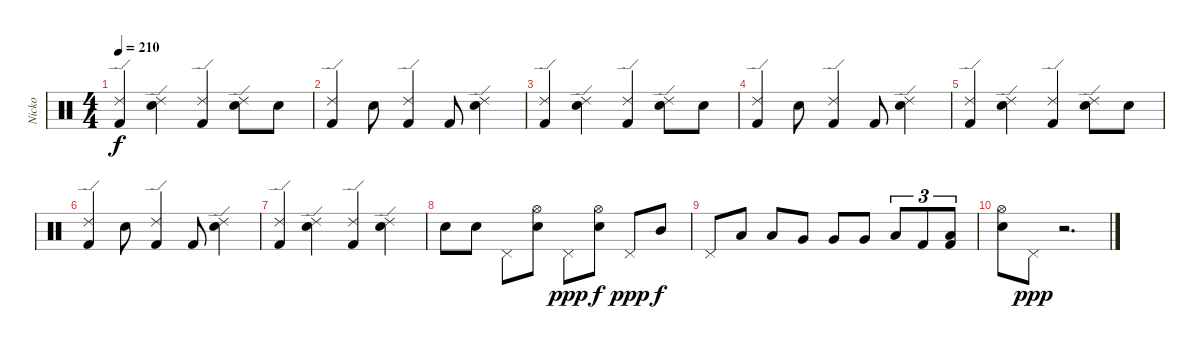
\track ("Nicko" "Nicko") {instrument percussion}
\staff {score}
\articulation defaults
\ts (4 4)
\tempo 210
\clef neutral
\ks c
("Ride (edge) 2" "Kick (hit) 2").4{dy f} ("Ride (edge) 2" "Electric Snare (hit)").4 ("Ride (edge) 2" "Kick (hit) 2").4 ("Ride (edge) 2" "Electric Snare (hit)").8 "Electric Snare (hit)".8 |
("Ride (edge) 2" "Kick (hit) 2").4 "Electric Snare (hit)".8 ("Ride (edge) 2" "Kick (hit) 2").4 "Kick (hit) 2".8 ("Ride (edge) 2" "Electric Snare (hit)").4 |
("Ride (edge) 2" "Kick (hit) 2").4 ("Ride (edge) 2" "Electric Snare (hit)").4 ("Ride (edge) 2" "Kick (hit) 2").4 ("Ride (edge) 2" "Electric Snare (hit)").8 "Electric Snare (hit)".8 |
("Ride (edge) 2" "Kick (hit) 2").4 "Electric Snare (hit)".8 ("Ride (edge) 2" "Kick (hit) 2").4 "Kick (hit) 2".8 ("Ride (edge) 2" "Electric Snare (hit)").4 |
("Ride (edge) 2" "Kick (hit) 2").4 ("Ride (edge) 2" "Electric Snare (hit)").4 ("Ride (edge) 2" "Kick (hit) 2").4 ("Ride (edge) 2" "Electric Snare (hit)").8 "Electric Snare (hit)".8 |
("Ride (edge) 2" "Kick (hit) 2").4 "Electric Snare (hit)".8 ("Ride (edge) 2" "Kick (hit) 2").4 "Kick (hit) 2".8 ("Ride (edge) 2" "Electric Snare (hit)").4 |
("Ride (edge) 2" "Kick (hit) 2").4 ("Ride (edge) 2" "Electric Snare (hit)").4 ("Ride (edge) 2" "Kick (hit) 2").4 ("Ride (edge) 2" "Electric Snare (hit)").4 |
"Electric Snare (hit)".8 "Electric Snare (hit)".8 "Pedal Hi-Hat (hit)".8 ("Hi-Hat (open)" "Electric Snare (hit)").8 "Pedal Hi-Hat (hit)".8{dy ppp} ("Hi-Hat (open)" "Electric Snare (hit)").8{dy f} "Pedal Hi-Hat (hit)".8{dy ppp} "Mid Tom (hit)".8{dy f} |
"Pedal Hi-Hat (hit)".8 "Low Tom (hit)".8 "Low Tom (hit)".8 "Very Low Tom (hit)".8 "Very Low Tom (hit)".8 "Very Low Tom (hit)".8 "Low Tom (hit)".8{tu (3 2)} "Kick (hit) 2".8{tu (3 2)} ("Low Floor Tom (hit)" "Kick (hit) 2").8{tu (3 2)} |
("Hi-Hat (open)" "Electric Snare (hit)").8 "Pedal Hi-Hat (hit)".8{dy ppp} r.2{d}
